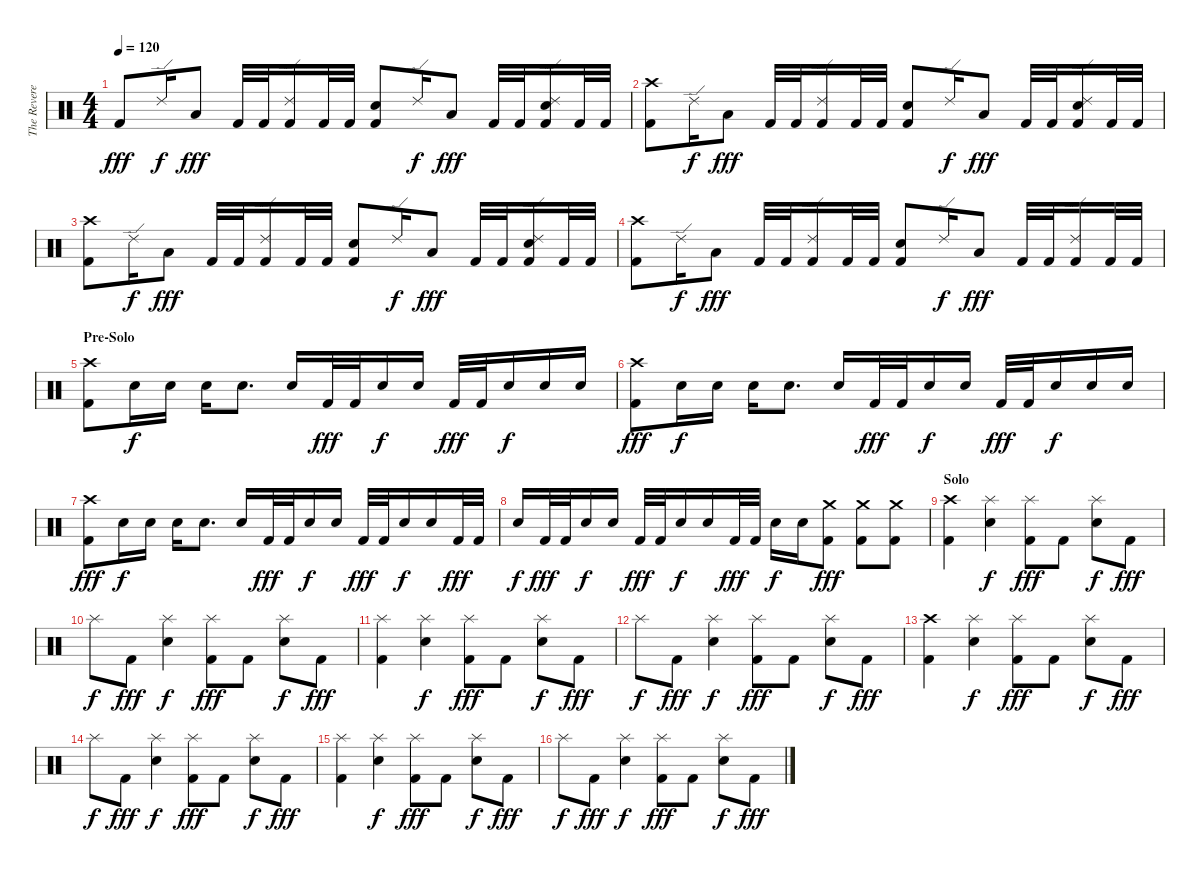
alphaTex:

\track ("The Reverend" "The Revere") {instrument percussion}
\staff {score}
\articulation defaults
\ts (4 4)
\tempo 120
\clef neutral
\ks c "Kick (hit) 2".8{dy fff} "Ride (edge) 2".16{dy f} "Low Tom (hit)".8{dy fff} "Kick (hit) 2".32 "Kick (hit) 2".32
("Ride (edge) 2" "Kick (hit) 2").16 "Kick (hit) 2".32 "Kick (hit) 2".32 ("Electric Snare (hit)" "Kick (hit) 2").8 "Ride (edge) 2".16{dy f} "Low Tom (hit)".8{dy fff} "Kick (hit) 2".32 "Kick (hit) 2".32 ("Ride (edge) 2" "Electric Snare (hit)" "Kick (hit) 2").16 "Kick (hit) 2".32 "Kick (hit) 2".32 |
("Crash high (hit)" "Kick (hit) 2").8 "Ride (edge) 2".16{dy f} "Low Tom (hit)".8{dy fff} "Kick (hit) 2".32 "Kick (hit) 2".32 ("Ride (edge) 2" "Kick (hit) 2").16 "Kick (hit) 2".32 "Kick (hit) 2".32 ("Electric Snare (hit)" "Kick (hit) 2").8 "Ride (edge) 2".16{dy f} "Low Tom (hit)".8{dy fff} "Kick (hit) 2".32 "Kick (hit) 2".32 ("Ride (edge) 2" "Electric Snare (hit)" "Kick (hit) 2").16 "Kick (hit) 2".32 "Kick (hit) 2".32 |
("Crash high (hit)" "Kick (hit) 2").8 "Ride (edge) 2".16{dy f} "Low Tom (hit)".8{dy fff} "Kick (hit) 2".32 "Kick (hit) 2".32 ("Ride (edge) 2" "Kick (hit) 2").16 "Kick (hit) 2".32 "Kick (hit) 2".32 ("Electric Snare (hit)" "Kick (hit) 2").8 "Ride (edge) 2".16{dy f} "Low Tom (hit)".8{dy fff} "Kick (hit) 2".32 "Kick (hit) 2".32 ("Ride (edge) 2" "Electric Snare (hit)" "Kick (hit) 2").16 "Kick (hit) 2".32 "Kick (hit) 2".32 |
("Crash high (hit)" "Kick (hit) 2").8 "Ride (edge) 2".16{dy f} "Low Tom (hit)".8{dy fff} "Kick (hit) 2".32 "Kick (hit) 2".32 ("Ride (edge) 2" "Kick (hit) 2").16 "Kick (hit) 2".32 "Kick (hit) 2".32 ("Electric Snare (hit)" "Kick (hit) 2").8 "Ride (edge) 2".16{dy f} "Low Tom (hit)".8{dy fff} "Kick (hit) 2".32 "Kick (hit) 2".32 ("Ride (edge) 2" "Kick (hit) 2").16 "Kick (hit) 2".32 "Kick (hit) 2".32 |
\section ("" "Pre-Solo")
("Crash high (hit)" "Kick (hit) 2").8 "Electric Snare (hit)".16{dy f} "Electric Snare (hit)".16 "Electric Snare (hit)".16 "Electric Snare (hit)".8{d} "Electric Snare (hit)".16 "Kick (hit) 2".32{dy fff} "Kick (hit) 2".32 "Electric Snare (hit)".16{dy f} "Electric Snare (hit)".16 "Kick (hit) 2".32{dy fff} "Kick (hit) 2".32 "Electric Snare (hit)".16{dy f} "Electric Snare (hit)".16 "Electric Snare (hit)".16 |
("Crash high (hit)" "Kick (hit) 2").8{dy fff} "Electric Snare (hit)".16{dy f} "Electric Snare (hit)".16 "Electric Snare (hit)".16 "Electric Snare (hit)".8{d} "Electric Snare (hit)".16 "Kick (hit) 2".32{dy fff} "Kick (hit) 2".32 "Electric Snare (hit)".16{dy f} "Electric Snare (hit)".16 "Kick (hit) 2".32{dy fff} "Kick (hit) 2".32 "Electric Snare (hit)".16{dy f} "Electric Snare (hit)".16 "Electric Snare (hit)".16 |
("Crash high (hit)" "Kick (hit) 2").8{dy fff} "Electric Snare (hit)".16{dy f} "Electric Snare (hit)".16 "Electric Snare (hit)".16 "Electric Snare (hit)".8{d} "Electric Snare (hit)".16 "Kick (hit) 2".32{dy fff} "Kick (hit) 2".32 "Electric Snare (hit)".16{dy f} "Electric Snare (hit)".16 "Kick (hit) 2".32{dy fff} "Kick (hit) 2".32 "Electric Snare (hit)".16{dy f} "Electric Snare (hit)".16 "Kick (hit) 2".32{dy fff} "Kick (hit) 2".32 |
"Electric Snare (hit)".16{dy f} "Kick (hit) 2".32{dy fff} "Kick (hit) 2".32 "Electric Snare (hit)".16{dy f} "Electric Snare (hit)".16 "Kick (hit) 2".32{dy fff} "Kick (hit) 2".32 "Electric Snare (hit)".16{dy f} "Electric Snare (hit)".16 "Kick (hit) 2".32{dy fff} "Kick (hit) 2".32 "Electric Snare (hit)".16{dy f} "Electric Snare (hit)".16 ("Crash medium (hit)" "Kick (hit) 2").8{dy fff} ("Crash medium (hit)" "Kick (hit) 2").8 ("Crash medium (hit)" "Kick (hit) 2").8 |
\section ("" "Solo")
("Crash high (hit)" "Kick (hit) 2").4 ("Splash (hit)" "Electric Snare (hit)").4{dy f} ("Splash (hit)" "Kick (hit) 2").8{dy fff} "Kick (hit) 2".8 ("Splash (hit)" "Electric Snare (hit)").8{dy f} "Kick (hit) 2".8{dy fff} |
"Splash (hit)".8{dy f} "Kick (hit) 2".8{dy fff} ("Splash (hit)" "Electric Snare (hit)").4{dy f} ("Splash (hit)" "Kick (hit) 2").8{dy fff} "Kick (hit) 2".8 ("Splash (hit)" "Electric Snare (hit)").8{dy f} "Kick (hit) 2".8{dy fff} |
("Splash (hit)" "Kick (hit) 2").4 ("Splash (hit)" "Electric Snare (hit)").4{dy f} ("Splash (hit)" "Kick (hit) 2").8{dy fff} "Kick (hit) 2".8 ("Splash (hit)" "Electric Snare (hit)").8{dy f} "Kick (hit) 2".8{dy fff} |
"Splash (hit)".8{dy f} "Kick (hit) 2".8{dy fff} ("Splash (hit)" "Electric Snare (hit)").4{dy f} ("Splash (hit)" "Kick (hit) 2").8{dy fff} "Kick (hit) 2".8 ("Splash (hit)" "Electric Snare (hit)").8{dy f} "Kick (hit) 2".8{dy fff} |
("Crash high (hit)" "Kick (hit) 2").4 ("Splash (hit)" "Electric Snare (hit)").4{dy f} ("Splash (hit)" "Kick (hit) 2").8{dy fff} "Kick (hit) 2".8 ("Splash (hit)" "Electric Snare (hit)").8{dy f} "Kick (hit) 2".8{dy fff} |
"Splash (hit)".8{dy f} "Kick (hit) 2".8{dy fff} ("Splash (hit)" "Electric Snare (hit)").4{dy f} ("Splash (hit)" "Kick (hit) 2").8{dy fff} "Kick (hit) 2".8 ("Splash (hit)" "Electric Snare (hit)").8{dy f} "Kick (hit) 2".8{dy fff} |
("Splash (hit)" "Kick (hit) 2").4 ("Splash (hit)" "Electric Snare (hit)").4{dy f} ("Splash (hit)" "Kick (hit) 2").8{dy fff} "Kick (hit) 2".8 ("Splash (hit)" "Electric Snare (hit)").8{dy f} "Kick (hit) 2".8{dy fff} |
"Splash (hit)".8{dy f} "Kick (hit) 2".8{dy fff} ("Splash (hit)" "Electric Snare (hit)").4{dy f} ("Splash (hit)" "Kick (hit) 2").8{dy fff} "Kick (hit) 2".8 ("Splash (hit)" "Electric Snare (hit)").8{dy f} "Kick (hit) 2".8{dy fff}
